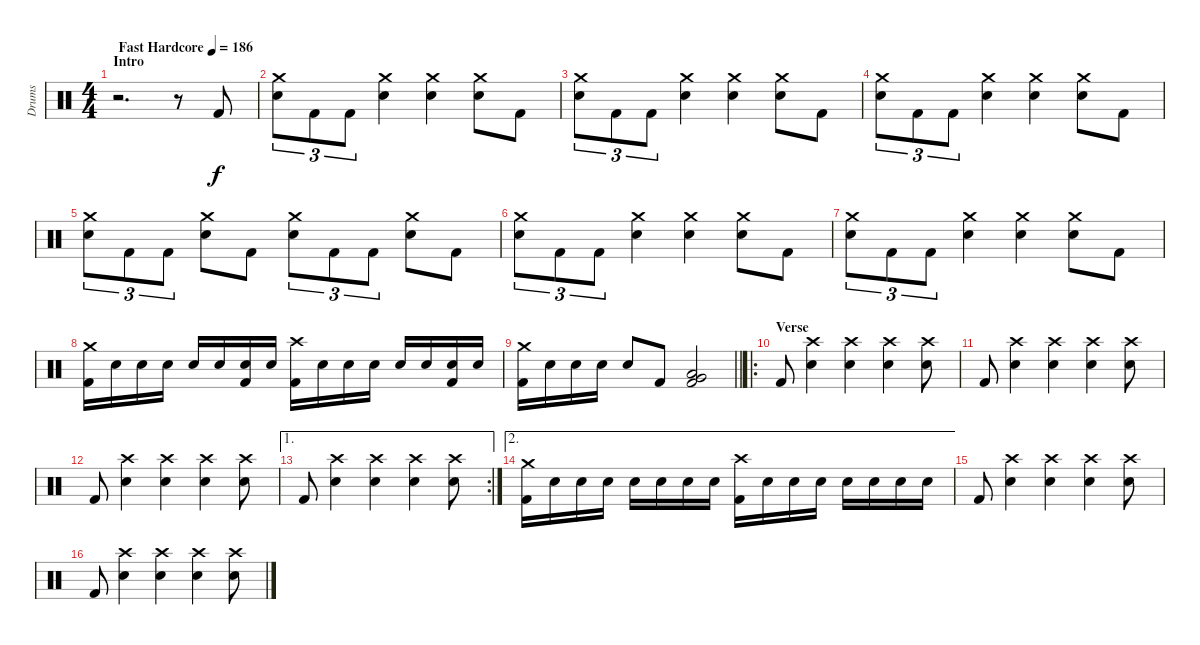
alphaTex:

\track ("Drums" "Drums") {instrument percussion}
\staff {score}
\articulation defaults
\ts (4 4)
\section ("" "Intro")
\tempo (186 "Fast Hardcore")
\clef neutral
\ks c
r.2{d dy f} r.8 "Kick (hit) 2".8 |
("Crash medium (hit)" "Electric Snare (hit)").8{tu (3 2)} "Kick (hit) 2".8{tu (3 2)} "Kick (hit) 2".8{tu (3 2)} ("Crash medium (hit)" "Electric Snare (hit)").4 ("Crash medium (hit)" "Electric Snare (hit)").4 ("Crash medium (hit)" "Electric Snare (hit)").8 "Kick (hit) 2".8 |
("Crash medium (hit)" "Electric Snare (hit)").8{tu (3 2)} "Kick (hit) 2".8{tu (3 2)} "Kick (hit) 2".8{tu (3 2)} ("Crash medium (hit)" "Electric Snare (hit)").4 ("Crash medium (hit)" "Electric Snare (hit)").4 ("Crash medium (hit)" "Electric Snare (hit)").8 "Kick (hit) 2".8 |
("Crash medium (hit)" "Electric Snare (hit)").8{tu (3 2)} "Kick (hit) 2".8{tu (3 2)} "Kick (hit) 2".8{tu (3 2)} ("Crash medium (hit)" "Electric Snare (hit)").4 ("Crash medium (hit)" "Electric Snare (hit)").4 ("Crash medium (hit)" "Electric Snare (hit)").8 "Kick (hit) 2".8 |
("Crash medium (hit)" "Electric Snare (hit)").8{tu (3 2)} "Kick (hit) 2".8{tu (3 2)} "Kick (hit) 2".8{tu (3 2)} ("Crash medium (hit)" "Electric Snare (hit)").8 "Kick (hit) 2".8 ("Crash medium (hit)" "Electric Snare (hit)").8{tu (3 2)} "Kick (hit) 2".8{tu (3 2)} "Kick (hit) 2".8{tu (3 2)} ("Crash medium (hit)" "Electric Snare (hit)").8 "Kick (hit) 2".8 |
("Crash medium (hit)" "Electric Snare (hit)").8{tu (3 2)} "Kick (hit) 2".8{tu (3 2)} "Kick (hit) 2".8{tu (3 2)} ("Crash medium (hit)" "Electric Snare (hit)").4 ("Crash medium (hit)" "Electric Snare (hit)").4 ("Crash medium (hit)" "Electric Snare (hit)").8 "Kick (hit) 2".8 |
("Crash medium (hit)" "Electric Snare (hit)").8{tu (3 2)} "Kick (hit) 2".8{tu (3 2)} "Kick (hit) 2".8{tu (3 2)} ("Crash medium (hit)" "Electric Snare (hit)").4 ("Crash medium (hit)" "Electric Snare (hit)").4 ("Crash medium (hit)" "Electric Snare (hit)").8 "Kick (hit) 2".8 |
("Crash medium (hit)" "Kick (hit) 2").16 "Electric Snare (hit)".16 "Electric Snare (hit)".16 "Electric Snare (hit)".16 "Electric Snare (hit)".16 "Electric Snare (hit)".16 ("Electric Snare (hit)" "Kick (hit) 2").16 "Electric Snare (hit)".16 ("Crash high (hit)" "Kick (hit) 2").16 "Electric Snare (hit)".16 "Electric Snare (hit)".16 "Electric Snare (hit)".16 "Electric Snare (hit)".16 "Electric Snare (hit)".16 ("Electric Snare (hit)" "Kick (hit) 2").16 "Electric Snare (hit)".16 |
\barLineRight lightlight
("Crash medium (hit)" "Kick (hit) 2").16 "Electric Snare (hit)".16 "Electric Snare (hit)".16 "Electric Snare (hit)".16 "Electric Snare (hit)".8 "Kick (hit) 2".8 ("Very Low Tom (hit)" "Low Floor Tom (hit)" "Kick (hit) 2").2 |
\ro
\section ("" "Verse")
"Kick (hit) 2".8 ("Crash high (hit)" "Electric Snare (hit)").4 ("Crash high (hit)" "Electric Snare (hit)").4 ("Crash high (hit)" "Electric Snare (hit)").4 ("Crash high (hit)" "Electric Snare (hit)").8 |
"Kick (hit) 2".8 ("Crash high (hit)" "Electric Snare (hit)").4 ("Crash high (hit)" "Electric Snare (hit)").4 ("Crash high (hit)" "Electric Snare (hit)").4 ("Crash high (hit)" "Electric Snare (hit)").8 |
"Kick (hit) 2".8 ("Crash high (hit)" "Electric Snare (hit)").4 ("Crash high (hit)" "Electric Snare (hit)").4 ("Crash high (hit)" "Electric Snare (hit)").4 ("Crash high (hit)" "Electric Snare (hit)").8 |
\ae 1
\rc 2 "Kick (hit) 2".8
("Crash high (hit)" "Electric Snare (hit)").4 ("Crash high (hit)" "Electric Snare (hit)").4 ("Crash high (hit)" "Electric Snare (hit)").4 ("Crash high (hit)" "Electric Snare (hit)").8 |
\ae 2
("Crash medium (hit)" "Kick (hit) 2").16 "Electric Snare (hit)".16 "Electric Snare (hit)".16 "Electric Snare (hit)".16 "Electric Snare (hit)".16 "Electric Snare (hit)".16 "Electric Snare (hit)".16 "Electric Snare (hit)".16 ("Crash high (hit)" "Kick (hit) 2").16 "Electric Snare (hit)".16 "Electric Snare (hit)".16 "Electric Snare (hit)".16 "Electric Snare (hit)".16 "Electric Snare (hit)".16 "Electric Snare (hit)".16 "Electric Snare (hit)".16 |
"Kick (hit) 2".8 ("Crash high (hit)" "Electric Snare (hit)").4 ("Crash high (hit)" "Electric Snare (hit)").4 ("Crash high (hit)" "Electric Snare (hit)").4 ("Crash high (hit)" "Electric Snare (hit)").8 |
"Kick (hit) 2".8 ("Crash high (hit)" "Electric Snare (hit)").4 ("Crash high (hit)" "Electric Snare (hit)").4 ("Crash high (hit)" "Electric Snare (hit)").4 ("Crash high (hit)" "Electric Snare (hit)").8
